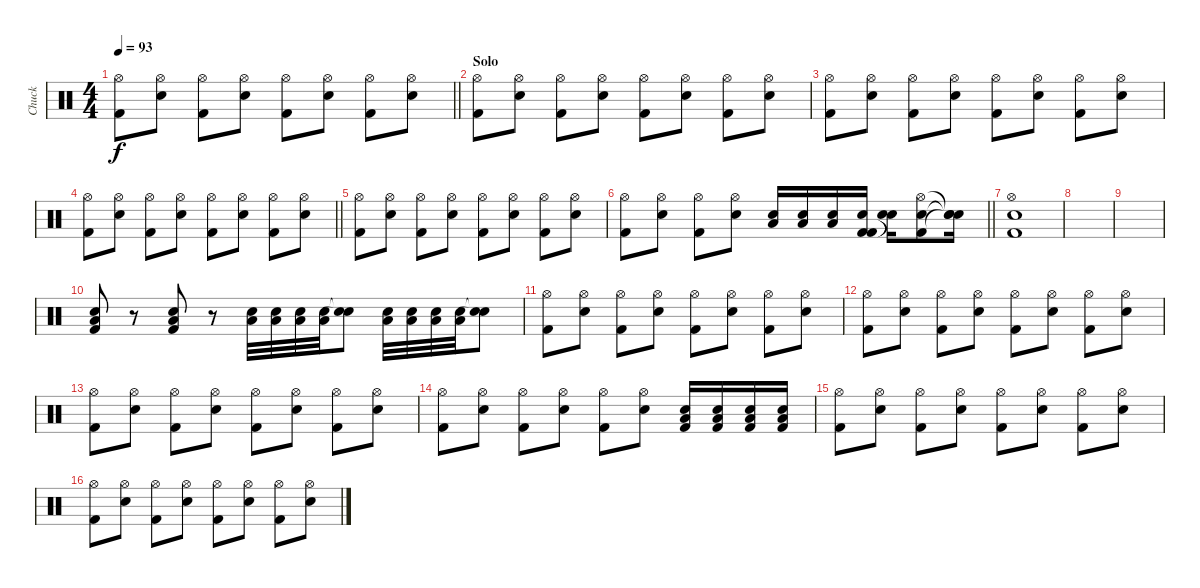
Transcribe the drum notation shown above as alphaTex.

\track ("Chuck" "Chuck") {instrument percussion}
\staff {score}
\articulation defaults
\ts (4 4)
\tempo 93
\clef neutral
\barLineRight lightlight
\ks c
("Hi-Hat (open)" "Kick (hit) 2").8{dy f} ("Hi-Hat (open)" "Snare (hit) 2").8 ("Hi-Hat (open)" "Kick (hit) 2").8 ("Hi-Hat (open)" "Snare (hit) 2").8 ("Hi-Hat (open)" "Kick (hit) 2").8 ("Hi-Hat (open)" "Snare (hit) 2").8 ("Hi-Hat (open)" "Kick (hit) 2").8 ("Hi-Hat (open)" "Snare (hit) 2").8 |
\section ("" "Solo")
("Hi-Hat (open)" "Kick (hit) 2").8 ("Hi-Hat (open)" "Snare (hit) 2").8 ("Hi-Hat (open)" "Kick (hit) 2").8 ("Hi-Hat (open)" "Snare (hit) 2").8 ("Hi-Hat (open)" "Kick (hit) 2").8 ("Hi-Hat (open)" "Snare (hit) 2").8 ("Hi-Hat (open)" "Kick (hit) 2").8 ("Hi-Hat (open)" "Snare (hit) 2").8 |
("Hi-Hat (open)" "Kick (hit) 2").8 ("Hi-Hat (open)" "Snare (hit) 2").8 ("Hi-Hat (open)" "Kick (hit) 2").8 ("Hi-Hat (open)" "Snare (hit) 2").8 ("Hi-Hat (open)" "Kick (hit) 2").8 ("Hi-Hat (open)" "Snare (hit) 2").8 ("Hi-Hat (open)" "Kick (hit) 2").8 ("Hi-Hat (open)" "Snare (hit) 2").8 |
\barLineRight lightlight
("Hi-Hat (open)" "Kick (hit) 2").8 ("Hi-Hat (open)" "Snare (hit) 2").8 ("Hi-Hat (open)" "Kick (hit) 2").8 ("Hi-Hat (open)" "Snare (hit) 2").8 ("Hi-Hat (open)" "Kick (hit) 2").8 ("Hi-Hat (open)" "Snare (hit) 2").8 ("Hi-Hat (open)" "Kick (hit) 2").8 ("Hi-Hat (open)" "Snare (hit) 2").8 |
("Hi-Hat (open)" "Kick (hit) 2").8 ("Hi-Hat (open)" "Snare (hit) 2").8 ("Hi-Hat (open)" "Kick (hit) 2").8 ("Hi-Hat (open)" "Snare (hit) 2").8 ("Hi-Hat (open)" "Kick (hit) 2").8 ("Hi-Hat (open)" "Snare (hit) 2").8 ("Hi-Hat (open)" "Kick (hit) 2").8 ("Hi-Hat (open)" "Snare (hit) 2").8 |
\barLineRight lightlight
("Hi-Hat (open)" "Kick (hit) 2").8 ("Hi-Hat (open)" "Snare (hit) 2").8 ("Hi-Hat (open)" "Kick (hit) 2").8 ("Hi-Hat (open)" "Snare (hit) 2").8 ("Low Tom (hit)" "Snare (hit) 2").16 ("Low Tom (hit)" "Snare (hit) 2").16 ("Low Tom (hit)" "Snare (hit) 2").16 ("Kick (hit) 2" "Kick (hit) 2" "Snare (hit) 2").16 ("Snare (hit)"{t} "Snare (hit)"{t}).16 ("Hi-Hat (open)" "Snare (hit) 2" "Kick (hit) 2").8 ("Snare (hit)"{t} "Snare (hit)"{t} "Snare (hit)"{t}).16 |
("Hi-Hat (open)" "Snare (hit) 2" "Kick (hit) 2").1 |
|
|
("Kick (hit) 2" "Low Tom (hit)" "Snare (hit) 2").8 r.8 ("Kick (hit) 2" "Low Tom (hit)" "Snare (hit) 2").8 r.8 ("Low Tom (hit)" "Snare (hit) 2").32 ("Low Tom (hit)" "Snare (hit) 2").32 ("Low Tom (hit)" "Snare (hit) 2").32 ("Low Tom (hit)" "Snare (hit) 2").32 ("Snare (hit)"{t} "Snare (hit)"{t}).8 ("Low Tom (hit)" "Snare (hit) 2").32 ("Low Tom (hit)" "Snare (hit) 2").32 ("Low Tom (hit)" "Snare (hit) 2").32 ("Low Tom (hit)" "Snare (hit) 2").32 ("Snare (hit)"{t} "Snare (hit)"{t}).8 |
("Hi-Hat (open)" "Kick (hit) 2").8 ("Hi-Hat (open)" "Snare (hit) 2").8 ("Hi-Hat (open)" "Kick (hit) 2").8 ("Hi-Hat (open)" "Snare (hit) 2").8 ("Hi-Hat (open)" "Kick (hit) 2").8 ("Hi-Hat (open)" "Snare (hit) 2").8 ("Hi-Hat (open)" "Kick (hit) 2").8 ("Hi-Hat (open)" "Snare (hit) 2").8 |
("Hi-Hat (open)" "Kick (hit) 2").8 ("Hi-Hat (open)" "Snare (hit) 2").8 ("Hi-Hat (open)" "Kick (hit) 2").8 ("Hi-Hat (open)" "Snare (hit) 2").8 ("Hi-Hat (open)" "Kick (hit) 2").8 ("Hi-Hat (open)" "Snare (hit) 2").8 ("Hi-Hat (open)" "Kick (hit) 2").8 ("Hi-Hat (open)" "Snare (hit) 2").8 |
("Hi-Hat (open)" "Kick (hit) 2").8 ("Hi-Hat (open)" "Snare (hit) 2").8 ("Hi-Hat (open)" "Kick (hit) 2").8 ("Hi-Hat (open)" "Snare (hit) 2").8 ("Hi-Hat (open)" "Kick (hit) 2").8 ("Hi-Hat (open)" "Snare (hit) 2").8 ("Hi-Hat (open)" "Kick (hit) 2").8 ("Hi-Hat (open)" "Snare (hit) 2").8 |
("Hi-Hat (open)" "Kick (hit) 2").8 ("Hi-Hat (open)" "Snare (hit) 2").8 ("Hi-Hat (open)" "Kick (hit) 2").8 ("Hi-Hat (open)" "Snare (hit) 2").8 ("Hi-Hat (open)" "Kick (hit) 2").8 ("Hi-Hat (open)" "Snare (hit) 2").8 ("Kick (hit) 2" "Low Tom (hit)" "Snare (hit) 2").16 ("Kick (hit) 2" "Low Tom (hit)" "Snare (hit) 2").16 ("Kick (hit) 2" "Low Tom (hit)" "Snare (hit) 2").16 ("Kick (hit) 2" "Low Tom (hit)" "Snare (hit) 2").16 |
("Hi-Hat (open)" "Kick (hit) 2").8 ("Hi-Hat (open)" "Snare (hit) 2").8 ("Hi-Hat (open)" "Kick (hit) 2").8 ("Hi-Hat (open)" "Snare (hit) 2").8 ("Hi-Hat (open)" "Kick (hit) 2").8 ("Hi-Hat (open)" "Snare (hit) 2").8 ("Hi-Hat (open)" "Kick (hit) 2").8 ("Hi-Hat (open)" "Snare (hit) 2").8 |
("Hi-Hat (open)" "Kick (hit) 2").8 ("Hi-Hat (open)" "Snare (hit) 2").8 ("Hi-Hat (open)" "Kick (hit) 2").8 ("Hi-Hat (open)" "Snare (hit) 2").8 ("Hi-Hat (open)" "Kick (hit) 2").8 ("Hi-Hat (open)" "Snare (hit) 2").8 ("Hi-Hat (open)" "Kick (hit) 2").8 ("Hi-Hat (open)" "Snare (hit) 2").8
